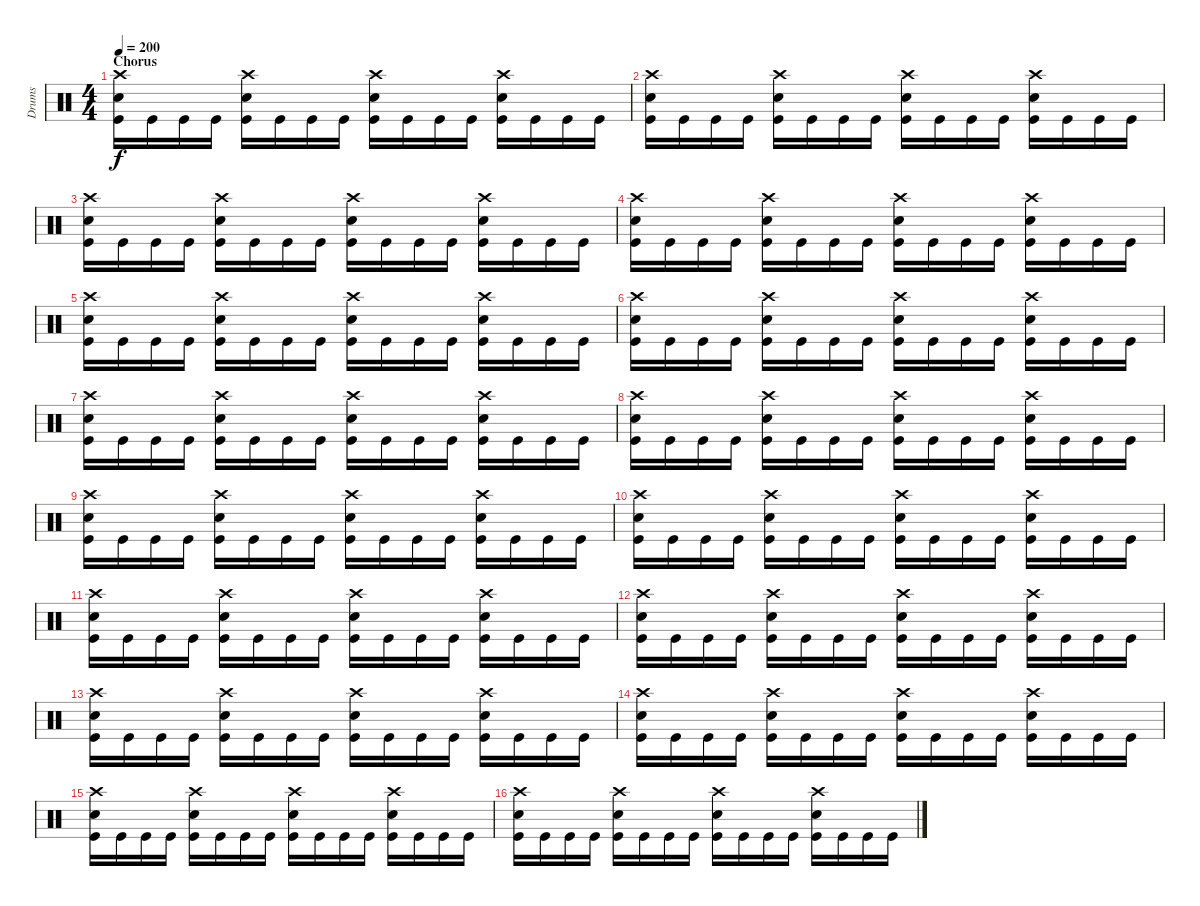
\track ("Drums" "Drums") {instrument percussion}
\staff {score}
\articulation defaults
\ts (4 4)
\section ("" "Chorus")
\tempo 200
\clef neutral
\ks c
("Crash high (hit)" "Snare (hit) 2" "Kick (hit)").16{dy f} "Kick (hit)".16 "Kick (hit)".16 "Kick (hit)".16 ("Crash high (hit)" "Snare (hit) 2" "Kick (hit)").16 "Kick (hit)".16 "Kick (hit)".16 "Kick (hit)".16 ("Crash high (hit)" "Snare (hit) 2" "Kick (hit)").16 "Kick (hit)".16 "Kick (hit)".16 "Kick (hit)".16 ("Crash high (hit)" "Snare (hit) 2" "Kick (hit)").16 "Kick (hit)".16 "Kick (hit)".16 "Kick (hit)".16 |
("Crash high (hit)" "Snare (hit) 2" "Kick (hit)").16 "Kick (hit)".16 "Kick (hit)".16 "Kick (hit)".16 ("Crash high (hit)" "Snare (hit) 2" "Kick (hit)").16 "Kick (hit)".16 "Kick (hit)".16 "Kick (hit)".16 ("Crash high (hit)" "Snare (hit) 2" "Kick (hit)").16 "Kick (hit)".16 "Kick (hit)".16 "Kick (hit)".16 ("Crash high (hit)" "Snare (hit) 2" "Kick (hit)").16 "Kick (hit)".16 "Kick (hit)".16 "Kick (hit)".16 |
("Crash high (hit)" "Snare (hit) 2" "Kick (hit)").16 "Kick (hit)".16 "Kick (hit)".16 "Kick (hit)".16 ("Crash high (hit)" "Snare (hit) 2" "Kick (hit)").16 "Kick (hit)".16 "Kick (hit)".16 "Kick (hit)".16 ("Crash high (hit)" "Snare (hit) 2" "Kick (hit)").16 "Kick (hit)".16 "Kick (hit)".16 "Kick (hit)".16 ("Crash high (hit)" "Snare (hit) 2" "Kick (hit)").16 "Kick (hit)".16 "Kick (hit)".16 "Kick (hit)".16 |
("Crash high (hit)" "Snare (hit) 2" "Kick (hit)").16 "Kick (hit)".16 "Kick (hit)".16 "Kick (hit)".16 ("Crash high (hit)" "Snare (hit) 2" "Kick (hit)").16 "Kick (hit)".16 "Kick (hit)".16 "Kick (hit)".16 ("Crash high (hit)" "Snare (hit) 2" "Kick (hit)").16 "Kick (hit)".16 "Kick (hit)".16 "Kick (hit)".16 ("Crash high (hit)" "Snare (hit) 2" "Kick (hit)").16 "Kick (hit)".16 "Kick (hit)".16 "Kick (hit)".16 |
("Crash high (hit)" "Snare (hit) 2" "Kick (hit)").16 "Kick (hit)".16 "Kick (hit)".16 "Kick (hit)".16 ("Crash high (hit)" "Snare (hit) 2" "Kick (hit)").16 "Kick (hit)".16 "Kick (hit)".16 "Kick (hit)".16 ("Crash high (hit)" "Snare (hit) 2" "Kick (hit)").16 "Kick (hit)".16 "Kick (hit)".16 "Kick (hit)".16 ("Crash high (hit)" "Snare (hit) 2" "Kick (hit)").16 "Kick (hit)".16 "Kick (hit)".16 "Kick (hit)".16 |
("Crash high (hit)" "Snare (hit) 2" "Kick (hit)").16 "Kick (hit)".16 "Kick (hit)".16 "Kick (hit)".16 ("Crash high (hit)" "Snare (hit) 2" "Kick (hit)").16 "Kick (hit)".16 "Kick (hit)".16 "Kick (hit)".16 ("Crash high (hit)" "Snare (hit) 2" "Kick (hit)").16 "Kick (hit)".16 "Kick (hit)".16 "Kick (hit)".16 ("Crash high (hit)" "Snare (hit) 2" "Kick (hit)").16 "Kick (hit)".16 "Kick (hit)".16 "Kick (hit)".16 |
("Crash high (hit)" "Snare (hit) 2" "Kick (hit)").16 "Kick (hit)".16 "Kick (hit)".16 "Kick (hit)".16 ("Crash high (hit)" "Snare (hit) 2" "Kick (hit)").16 "Kick (hit)".16 "Kick (hit)".16 "Kick (hit)".16 ("Crash high (hit)" "Snare (hit) 2" "Kick (hit)").16 "Kick (hit)".16 "Kick (hit)".16 "Kick (hit)".16 ("Crash high (hit)" "Snare (hit) 2" "Kick (hit)").16 "Kick (hit)".16 "Kick (hit)".16 "Kick (hit)".16 |
("Crash high (hit)" "Snare (hit) 2" "Kick (hit)").16 "Kick (hit)".16 "Kick (hit)".16 "Kick (hit)".16 ("Crash high (hit)" "Snare (hit) 2" "Kick (hit)").16 "Kick (hit)".16 "Kick (hit)".16 "Kick (hit)".16 ("Crash high (hit)" "Snare (hit) 2" "Kick (hit)").16 "Kick (hit)".16 "Kick (hit)".16 "Kick (hit)".16 ("Crash high (hit)" "Snare (hit) 2" "Kick (hit)").16 "Kick (hit)".16 "Kick (hit)".16 "Kick (hit)".16 |
("Crash high (hit)" "Snare (hit) 2" "Kick (hit)").16 "Kick (hit)".16 "Kick (hit)".16 "Kick (hit)".16 ("Crash high (hit)" "Snare (hit) 2" "Kick (hit)").16 "Kick (hit)".16 "Kick (hit)".16 "Kick (hit)".16 ("Crash high (hit)" "Snare (hit) 2" "Kick (hit)").16 "Kick (hit)".16 "Kick (hit)".16 "Kick (hit)".16 ("Crash high (hit)" "Snare (hit) 2" "Kick (hit)").16 "Kick (hit)".16 "Kick (hit)".16 "Kick (hit)".16 |
("Crash high (hit)" "Snare (hit) 2" "Kick (hit)").16 "Kick (hit)".16 "Kick (hit)".16 "Kick (hit)".16 ("Crash high (hit)" "Snare (hit) 2" "Kick (hit)").16 "Kick (hit)".16 "Kick (hit)".16 "Kick (hit)".16 ("Crash high (hit)" "Snare (hit) 2" "Kick (hit)").16 "Kick (hit)".16 "Kick (hit)".16 "Kick (hit)".16 ("Crash high (hit)" "Snare (hit) 2" "Kick (hit)").16 "Kick (hit)".16 "Kick (hit)".16 "Kick (hit)".16 |
("Crash high (hit)" "Snare (hit) 2" "Kick (hit)").16 "Kick (hit)".16 "Kick (hit)".16 "Kick (hit)".16 ("Crash high (hit)" "Snare (hit) 2" "Kick (hit)").16 "Kick (hit)".16 "Kick (hit)".16 "Kick (hit)".16 ("Crash high (hit)" "Snare (hit) 2" "Kick (hit)").16 "Kick (hit)".16 "Kick (hit)".16 "Kick (hit)".16 ("Crash high (hit)" "Snare (hit) 2" "Kick (hit)").16 "Kick (hit)".16 "Kick (hit)".16 "Kick (hit)".16 |
("Crash high (hit)" "Snare (hit) 2" "Kick (hit)").16 "Kick (hit)".16 "Kick (hit)".16 "Kick (hit)".16 ("Crash high (hit)" "Snare (hit) 2" "Kick (hit)").16 "Kick (hit)".16 "Kick (hit)".16 "Kick (hit)".16 ("Crash high (hit)" "Snare (hit) 2" "Kick (hit)").16 "Kick (hit)".16 "Kick (hit)".16 "Kick (hit)".16 ("Crash high (hit)" "Snare (hit) 2" "Kick (hit)").16 "Kick (hit)".16 "Kick (hit)".16 "Kick (hit)".16 |
("Crash high (hit)" "Snare (hit) 2" "Kick (hit)").16 "Kick (hit)".16 "Kick (hit)".16 "Kick (hit)".16 ("Crash high (hit)" "Snare (hit) 2" "Kick (hit)").16 "Kick (hit)".16 "Kick (hit)".16 "Kick (hit)".16 ("Crash high (hit)" "Snare (hit) 2" "Kick (hit)").16 "Kick (hit)".16 "Kick (hit)".16 "Kick (hit)".16 ("Crash high (hit)" "Snare (hit) 2" "Kick (hit)").16 "Kick (hit)".16 "Kick (hit)".16 "Kick (hit)".16 |
("Crash high (hit)" "Snare (hit) 2" "Kick (hit)").16 "Kick (hit)".16 "Kick (hit)".16 "Kick (hit)".16 ("Crash high (hit)" "Snare (hit) 2" "Kick (hit)").16 "Kick (hit)".16 "Kick (hit)".16 "Kick (hit)".16 ("Crash high (hit)" "Snare (hit) 2" "Kick (hit)").16 "Kick (hit)".16 "Kick (hit)".16 "Kick (hit)".16 ("Crash high (hit)" "Snare (hit) 2" "Kick (hit)").16 "Kick (hit)".16 "Kick (hit)".16 "Kick (hit)".16 |
("Crash high (hit)" "Snare (hit) 2" "Kick (hit)").16 "Kick (hit)".16 "Kick (hit)".16 "Kick (hit)".16 ("Crash high (hit)" "Snare (hit) 2" "Kick (hit)").16 "Kick (hit)".16 "Kick (hit)".16 "Kick (hit)".16 ("Crash high (hit)" "Snare (hit) 2" "Kick (hit)").16 "Kick (hit)".16 "Kick (hit)".16 "Kick (hit)".16 ("Crash high (hit)" "Snare (hit) 2" "Kick (hit)").16 "Kick (hit)".16 "Kick (hit)".16 "Kick (hit)".16 |
("Crash high (hit)" "Snare (hit) 2" "Kick (hit)").16 "Kick (hit)".16 "Kick (hit)".16 "Kick (hit)".16 ("Crash high (hit)" "Snare (hit) 2" "Kick (hit)").16 "Kick (hit)".16 "Kick (hit)".16 "Kick (hit)".16 ("Crash high (hit)" "Snare (hit) 2" "Kick (hit)").16 "Kick (hit)".16 "Kick (hit)".16 "Kick (hit)".16 ("Crash high (hit)" "Snare (hit) 2" "Kick (hit)").16 "Kick (hit)".16 "Kick (hit)".16 "Kick (hit)".16
